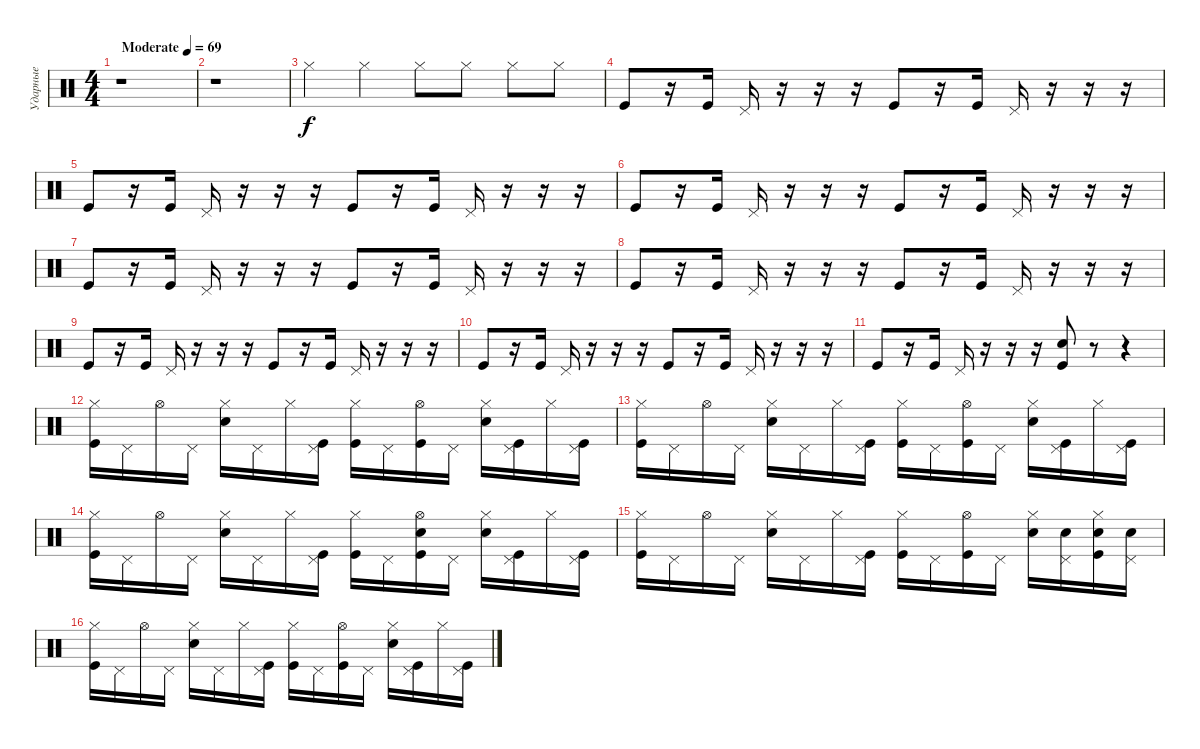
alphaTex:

\track ("Ударные" "Ударные") {instrument percussion}
\staff {score}
\articulation defaults
\ts (4 4)
\tempo (69 "Moderate")
\clef neutral
\ks c
r.1{dy f} |
r.1 |
"Hi-Hat (closed)".4 "Hi-Hat (closed)".4 "Hi-Hat (closed)".8 "Hi-Hat (closed)".8 "Hi-Hat (closed)".8 "Hi-Hat (closed)".8 |
"Kick (hit)".8 r.16 "Kick (hit)".16 "Pedal Hi-Hat (hit)".16 r.16 r.16 r.16 "Kick (hit)".8 r.16 "Kick (hit)".16 "Pedal Hi-Hat (hit)".16 r.16 r.16 r.16 |
"Kick (hit)".8 r.16 "Kick (hit)".16 "Pedal Hi-Hat (hit)".16 r.16 r.16 r.16 "Kick (hit)".8 r.16 "Kick (hit)".16 "Pedal Hi-Hat (hit)".16 r.16 r.16 r.16 |
"Kick (hit)".8 r.16 "Kick (hit)".16 "Pedal Hi-Hat (hit)".16 r.16 r.16 r.16 "Kick (hit)".8 r.16 "Kick (hit)".16 "Pedal Hi-Hat (hit)".16 r.16 r.16 r.16 |
"Kick (hit)".8 r.16 "Kick (hit)".16 "Pedal Hi-Hat (hit)".16 r.16 r.16 r.16 "Kick (hit)".8 r.16 "Kick (hit)".16 "Pedal Hi-Hat (hit)".16 r.16 r.16 r.16 |
"Kick (hit)".8 r.16 "Kick (hit)".16 "Pedal Hi-Hat (hit)".16 r.16 r.16 r.16 "Kick (hit)".8 r.16 "Kick (hit)".16 "Pedal Hi-Hat (hit)".16 r.16 r.16 r.16 |
"Kick (hit)".8 r.16 "Kick (hit)".16 "Pedal Hi-Hat (hit)".16 r.16 r.16 r.16 "Kick (hit)".8 r.16 "Kick (hit)".16 "Pedal Hi-Hat (hit)".16 r.16 r.16 r.16 |
"Kick (hit)".8 r.16 "Kick (hit)".16 "Pedal Hi-Hat (hit)".16 r.16 r.16 r.16 "Kick (hit)".8 r.16 "Kick (hit)".16 "Pedal Hi-Hat (hit)".16 r.16 r.16 r.16 |
"Kick (hit)".8 r.16 "Kick (hit)".16 "Pedal Hi-Hat (hit)".16 r.16 r.16 r.16 ("Snare (hit) 2" "Kick (hit)").8 r.8 r.4 |
("Kick (hit)" "Hi-Hat (closed)").16 "Pedal Hi-Hat (hit)".16 "Hi-Hat (open)".16 "Pedal Hi-Hat (hit)".16 ("Snare (hit) 2" "Hi-Hat (closed)").16 "Pedal Hi-Hat (hit)".16 "Hi-Hat (closed)".16 ("Pedal Hi-Hat (hit)" "Kick (hit)").16 ("Kick (hit)" "Hi-Hat (closed)").16 "Pedal Hi-Hat (hit)".16 ("Kick (hit)" "Hi-Hat (open)").16 "Pedal Hi-Hat (hit)".16 ("Snare (hit) 2" "Hi-Hat (closed)").16 ("Pedal Hi-Hat (hit)" "Kick (hit)").16 "Hi-Hat (closed)".16 ("Pedal Hi-Hat (hit)" "Kick (hit)").16 |
("Kick (hit)" "Hi-Hat (closed)").16 "Pedal Hi-Hat (hit)".16 "Hi-Hat (open)".16 "Pedal Hi-Hat (hit)".16 ("Snare (hit) 2" "Hi-Hat (closed)").16 "Pedal Hi-Hat (hit)".16 "Hi-Hat (closed)".16 ("Pedal Hi-Hat (hit)" "Kick (hit)").16 ("Kick (hit)" "Hi-Hat (closed)").16 "Pedal Hi-Hat (hit)".16 ("Kick (hit)" "Hi-Hat (open)").16 "Pedal Hi-Hat (hit)".16 ("Snare (hit) 2" "Hi-Hat (closed)").16 ("Pedal Hi-Hat (hit)" "Kick (hit)").16 "Hi-Hat (closed)".16 ("Pedal Hi-Hat (hit)" "Kick (hit)").16 |
("Kick (hit)" "Hi-Hat (closed)").16 "Pedal Hi-Hat (hit)".16 "Hi-Hat (open)".16 "Pedal Hi-Hat (hit)".16 ("Snare (hit) 2" "Hi-Hat (closed)").16 "Pedal Hi-Hat (hit)".16 "Hi-Hat (closed)".16 ("Pedal Hi-Hat (hit)" "Kick (hit)").16 ("Kick (hit)" "Hi-Hat (closed)").16 "Pedal Hi-Hat (hit)".16 ("Kick (hit)" "Hi-Hat (open)" "Snare (hit) 2").16 "Pedal Hi-Hat (hit)".16 ("Snare (hit) 2" "Hi-Hat (closed)").16 ("Pedal Hi-Hat (hit)" "Kick (hit)").16 "Hi-Hat (closed)".16 ("Pedal Hi-Hat (hit)" "Kick (hit)").16 |
("Kick (hit)" "Hi-Hat (closed)").16 "Pedal Hi-Hat (hit)".16 "Hi-Hat (open)".16 "Pedal Hi-Hat (hit)".16 ("Snare (hit) 2" "Hi-Hat (closed)").16 "Pedal Hi-Hat (hit)".16 "Hi-Hat (closed)".16 ("Pedal Hi-Hat (hit)" "Kick (hit)").16 ("Kick (hit)" "Hi-Hat (closed)").16 "Pedal Hi-Hat (hit)".16 ("Kick (hit)" "Hi-Hat (open)").16 "Pedal Hi-Hat (hit)".16 ("Snare (hit) 2" "Hi-Hat (closed)").16 ("Pedal Hi-Hat (hit)" "Snare (hit) 2").16 ("Hi-Hat (closed)" "Snare (hit) 2" "Kick (hit)").16 ("Pedal Hi-Hat (hit)" "Snare (hit) 2").16 |
("Kick (hit)" "Hi-Hat (closed)").16 "Pedal Hi-Hat (hit)".16 "Hi-Hat (open)".16 "Pedal Hi-Hat (hit)".16 ("Snare (hit) 2" "Hi-Hat (closed)").16 "Pedal Hi-Hat (hit)".16 "Hi-Hat (closed)".16 ("Pedal Hi-Hat (hit)" "Kick (hit)").16 ("Kick (hit)" "Hi-Hat (closed)").16 "Pedal Hi-Hat (hit)".16 ("Kick (hit)" "Hi-Hat (open)").16 "Pedal Hi-Hat (hit)".16 ("Snare (hit) 2" "Hi-Hat (closed)").16 ("Pedal Hi-Hat (hit)" "Kick (hit)").16 "Hi-Hat (closed)".16 ("Pedal Hi-Hat (hit)" "Kick (hit)").16
